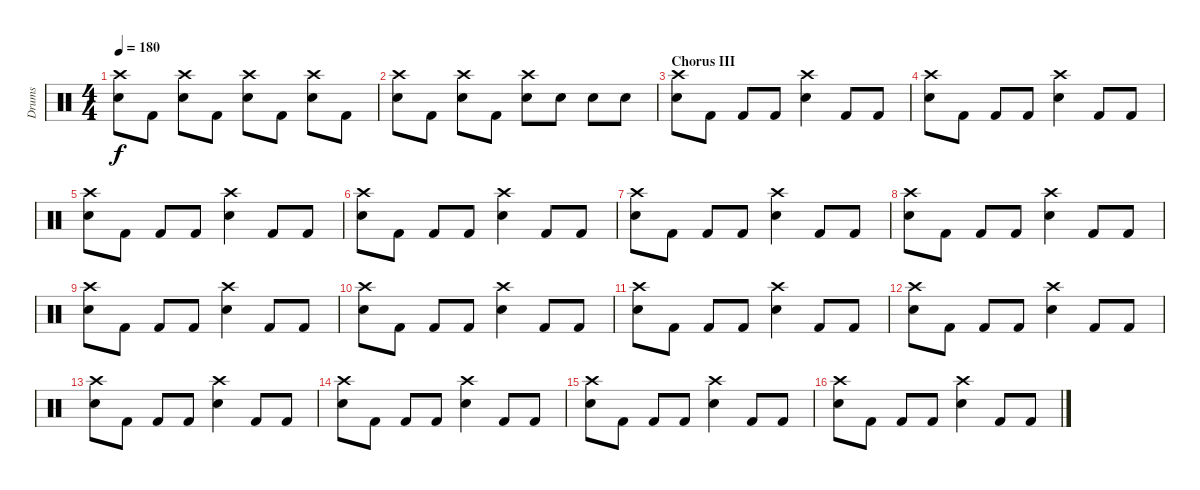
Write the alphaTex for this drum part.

\track ("Drums" "Drums") {instrument percussion}
\staff {score}
\articulation defaults
\ts (4 4)
\tempo 180
\clef neutral
\ks c
("Crash high (hit)" "Snare (hit) 2").8{dy f} "Kick (hit) 2".8 ("Crash high (hit)" "Snare (hit) 2").8 "Kick (hit) 2".8 ("Crash high (hit)" "Snare (hit) 2").8 "Kick (hit) 2".8 ("Crash high (hit)" "Snare (hit) 2").8 "Kick (hit) 2".8 |
("Crash high (hit)" "Snare (hit) 2").8 "Kick (hit) 2".8 ("Crash high (hit)" "Snare (hit) 2").8 "Kick (hit) 2".8 ("Crash high (hit)" "Snare (hit) 2").8 "Snare (hit) 2".8 "Snare (hit) 2".8 "Snare (hit) 2".8 |
\section ("" "Chorus III")
("Crash high (hit)" "Snare (hit) 2").8 "Kick (hit) 2".8 "Kick (hit) 2".8 "Kick (hit) 2".8 ("Crash high (hit)" "Snare (hit) 2").4 "Kick (hit) 2".8 "Kick (hit) 2".8 |
("Crash high (hit)" "Snare (hit) 2").8 "Kick (hit) 2".8 "Kick (hit) 2".8 "Kick (hit) 2".8 ("Crash high (hit)" "Snare (hit) 2").4 "Kick (hit) 2".8 "Kick (hit) 2".8 |
("Crash high (hit)" "Snare (hit) 2").8 "Kick (hit) 2".8 "Kick (hit) 2".8 "Kick (hit) 2".8 ("Crash high (hit)" "Snare (hit) 2").4 "Kick (hit) 2".8 "Kick (hit) 2".8 |
("Crash high (hit)" "Snare (hit) 2").8 "Kick (hit) 2".8 "Kick (hit) 2".8 "Kick (hit) 2".8 ("Crash high (hit)" "Snare (hit) 2").4 "Kick (hit) 2".8 "Kick (hit) 2".8 |
("Crash high (hit)" "Snare (hit) 2").8 "Kick (hit) 2".8 "Kick (hit) 2".8 "Kick (hit) 2".8 ("Crash high (hit)" "Snare (hit) 2").4 "Kick (hit) 2".8 "Kick (hit) 2".8 |
("Crash high (hit)" "Snare (hit) 2").8 "Kick (hit) 2".8 "Kick (hit) 2".8 "Kick (hit) 2".8 ("Crash high (hit)" "Snare (hit) 2").4 "Kick (hit) 2".8 "Kick (hit) 2".8 |
("Crash high (hit)" "Snare (hit) 2").8 "Kick (hit) 2".8 "Kick (hit) 2".8 "Kick (hit) 2".8 ("Crash high (hit)" "Snare (hit) 2").4 "Kick (hit) 2".8 "Kick (hit) 2".8 |
("Crash high (hit)" "Snare (hit) 2").8 "Kick (hit) 2".8 "Kick (hit) 2".8 "Kick (hit) 2".8 ("Crash high (hit)" "Snare (hit) 2").4 "Kick (hit) 2".8 "Kick (hit) 2".8 |
("Crash high (hit)" "Snare (hit) 2").8 "Kick (hit) 2".8 "Kick (hit) 2".8 "Kick (hit) 2".8 ("Crash high (hit)" "Snare (hit) 2").4 "Kick (hit) 2".8 "Kick (hit) 2".8 |
("Crash high (hit)" "Snare (hit) 2").8 "Kick (hit) 2".8 "Kick (hit) 2".8 "Kick (hit) 2".8 ("Crash high (hit)" "Snare (hit) 2").4 "Kick (hit) 2".8 "Kick (hit) 2".8 |
("Crash high (hit)" "Snare (hit) 2").8 "Kick (hit) 2".8 "Kick (hit) 2".8 "Kick (hit) 2".8 ("Crash high (hit)" "Snare (hit) 2").4 "Kick (hit) 2".8 "Kick (hit) 2".8 |
("Crash high (hit)" "Snare (hit) 2").8 "Kick (hit) 2".8 "Kick (hit) 2".8 "Kick (hit) 2".8 ("Crash high (hit)" "Snare (hit) 2").4 "Kick (hit) 2".8 "Kick (hit) 2".8 |
("Crash high (hit)" "Snare (hit) 2").8 "Kick (hit) 2".8 "Kick (hit) 2".8 "Kick (hit) 2".8 ("Crash high (hit)" "Snare (hit) 2").4 "Kick (hit) 2".8 "Kick (hit) 2".8 |
("Crash high (hit)" "Snare (hit) 2").8 "Kick (hit) 2".8 "Kick (hit) 2".8 "Kick (hit) 2".8 ("Crash high (hit)" "Snare (hit) 2").4 "Kick (hit) 2".8 "Kick (hit) 2".8
